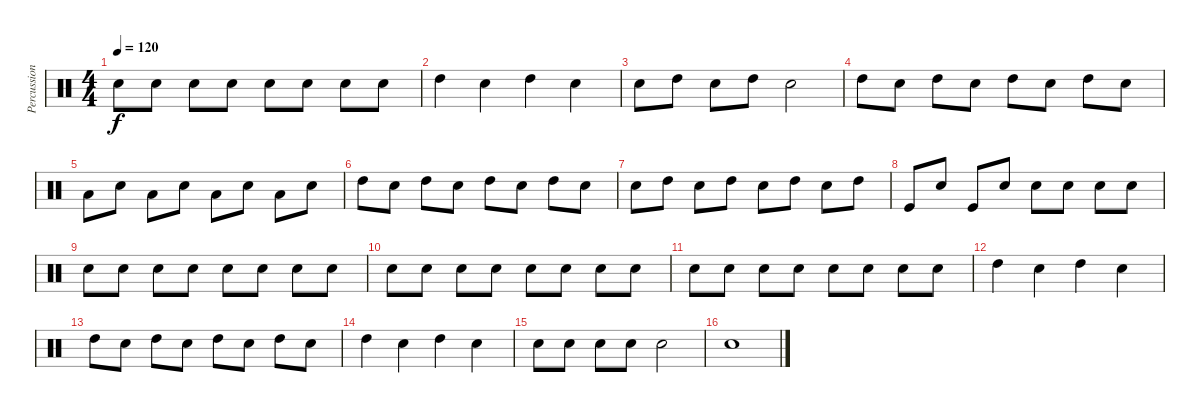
\track ("Percussion" "Percussion") {instrument percussion}
\staff {score}
\articulation defaults
\ts (4 4)
\tempo 120
\clef neutral
\ks c "Snare (hit) 2".8{dy f} "Snare (hit) 2".8 "Snare (hit) 2".8 "Snare (hit) 2".8 "Snare (hit) 2".8 "Snare (hit) 2".8 "Snare (hit) 2".8 "Snare (hit) 2".8
|
"High Tom (hit)".4 "Snare (hit) 2".4 "High Tom (hit)".4 "Snare (hit) 2".4 |
"Snare (hit) 2".8 "High Tom (hit)".8 "Snare (hit) 2".8 "High Tom (hit)".8 "Snare (hit) 2".2 |
"High Tom (hit)".8 "Snare (hit) 2".8 "High Tom (hit)".8 "Snare (hit) 2".8 "High Tom (hit)".8 "Snare (hit) 2".8 "High Tom (hit)".8 "Snare (hit) 2".8 |
"Low Tom (hit)".8 "Snare (hit) 2".8 "Low Tom (hit)".8 "Snare (hit) 2".8 "Low Tom (hit)".8 "Snare (hit) 2".8 "Low Tom (hit)".8 "Snare (hit) 2".8 |
"High Tom (hit)".8 "Snare (hit) 2".8 "High Tom (hit)".8 "Snare (hit) 2".8 "High Tom (hit)".8 "Snare (hit) 2".8 "High Tom (hit)".8 "Snare (hit) 2".8 |
"Snare (hit) 2".8 "High Tom (hit)".8 "Snare (hit) 2".8 "High Tom (hit)".8 "Snare (hit) 2".8 "High Tom (hit)".8 "Snare (hit) 2".8 "High Tom (hit)".8 |
"Kick (hit)".8 "Snare (hit) 2".8 "Kick (hit)".8 "Snare (hit) 2".8 "Snare (hit) 2".8 "Snare (hit) 2".8 "Snare (hit) 2".8 "Snare (hit) 2".8 |
"Snare (hit) 2".8 "Snare (hit) 2".8 "Snare (hit) 2".8 "Snare (hit) 2".8 "Snare (hit) 2".8 "Snare (hit) 2".8 "Snare (hit) 2".8 "Snare (hit) 2".8 |
"Snare (hit) 2".8 "Snare (hit) 2".8 "Snare (hit) 2".8 "Snare (hit) 2".8 "Snare (hit) 2".8 "Snare (hit) 2".8 "Snare (hit) 2".8 "Snare (hit) 2".8 |
"Snare (hit) 2".8 "Snare (hit) 2".8 "Snare (hit) 2".8 "Snare (hit) 2".8 "Snare (hit) 2".8 "Snare (hit) 2".8 "Snare (hit) 2".8 "Snare (hit) 2".8 |
"High Tom (hit)".4 "Snare (hit) 2".4 "High Tom (hit)".4 "Snare (hit) 2".4 |
"High Tom (hit)".8 "Snare (hit) 2".8 "High Tom (hit)".8 "Snare (hit) 2".8 "High Tom (hit)".8 "Snare (hit) 2".8 "High Tom (hit)".8 "Snare (hit) 2".8 |
"High Tom (hit)".4 "Snare (hit) 2".4 "High Tom (hit)".4 "Snare (hit) 2".4 |
"Snare (hit) 2".8 "Snare (hit) 2".8 "Snare (hit) 2".8 "Snare (hit) 2".8 "Snare (hit) 2".2 |
"Snare (hit) 2".1
